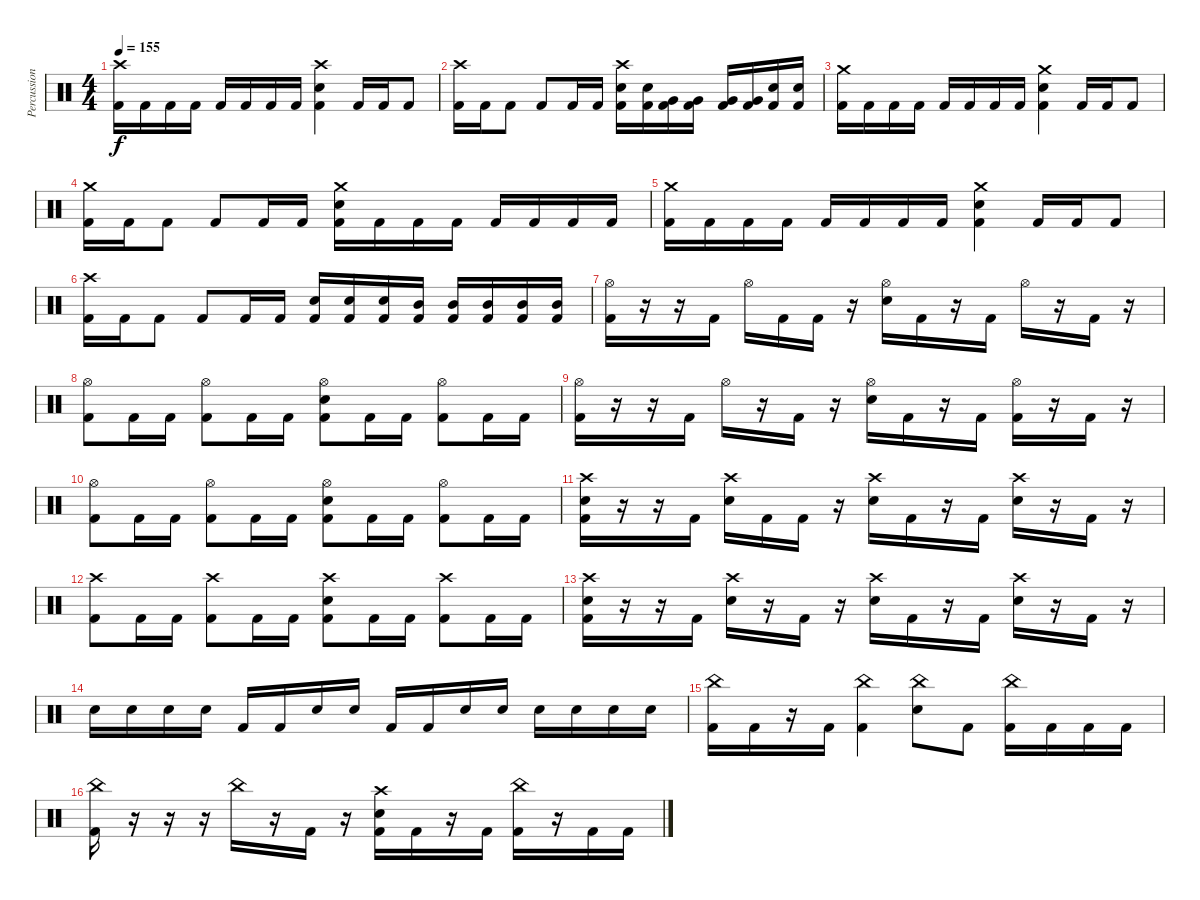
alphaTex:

\track ("Percussion" "Percussion") {instrument percussion}
\staff {score}
\articulation defaults
\ts (4 4)
\tempo 155
\clef neutral
\ks c
("Crash high (hit)" "Kick (hit) 2").16{dy f} "Kick (hit) 2".16 "Kick (hit) 2".16 "Kick (hit) 2".16 "Kick (hit) 2".16 "Kick (hit) 2".16 "Kick (hit) 2".16 "Kick (hit) 2".16 ("Crash high (hit)" "Electric Snare (hit)" "Kick (hit) 2").4 "Kick (hit) 2".16 "Kick (hit) 2".16 "Kick (hit) 2".8 |
("Crash high (hit)" "Kick (hit) 2").16 "Kick (hit) 2".16 "Kick (hit) 2".8 "Kick (hit) 2".8 "Kick (hit) 2".16 "Kick (hit) 2".16 ("Crash high (hit)" "Electric Snare (hit)" "Kick (hit) 2").16 ("Electric Snare (hit)" "Kick (hit) 2").16 ("Very Low Tom (hit)" "Kick (hit) 2").16 ("Very Low Tom (hit)" "Kick (hit) 2").16 ("Very Low Tom (hit)" "Kick (hit) 2").16 ("Very Low Tom (hit)" "Kick (hit) 2").16 ("Electric Snare (hit)" "Kick (hit) 2").16 ("Electric Snare (hit)" "Kick (hit) 2").16 |
("Crash medium (hit)" "Kick (hit) 2").16 "Kick (hit) 2".16 "Kick (hit) 2".16 "Kick (hit) 2".16 "Kick (hit) 2".16 "Kick (hit) 2".16 "Kick (hit) 2".16 "Kick (hit) 2".16 ("Crash medium (hit)" "Electric Snare (hit)" "Kick (hit) 2").4 "Kick (hit) 2".16 "Kick (hit) 2".16 "Kick (hit) 2".8 |
("Crash medium (hit)" "Kick (hit) 2").16 "Kick (hit) 2".16 "Kick (hit) 2".8 "Kick (hit) 2".8 "Kick (hit) 2".16 "Kick (hit) 2".16 ("Crash medium (hit)" "Electric Snare (hit)" "Kick (hit) 2").16 "Kick (hit) 2".16 "Kick (hit) 2".16 "Kick (hit) 2".16 "Kick (hit) 2".16 "Kick (hit) 2".16 "Kick (hit) 2".16 "Kick (hit) 2".16 |
("Crash medium (hit)" "Kick (hit) 2").16 "Kick (hit) 2".16 "Kick (hit) 2".16 "Kick (hit) 2".16 "Kick (hit) 2".16 "Kick (hit) 2".16 "Kick (hit) 2".16 "Kick (hit) 2".16 ("Crash medium (hit)" "Electric Snare (hit)" "Kick (hit) 2").4 "Kick (hit) 2".16 "Kick (hit) 2".16 "Kick (hit) 2".8 |
("Crash high (hit)" "Kick (hit) 2").16 "Kick (hit) 2".16 "Kick (hit) 2".8 "Kick (hit) 2".8 "Kick (hit) 2".16 "Kick (hit) 2".16 ("Electric Snare (hit)" "Kick (hit) 2").16 ("Electric Snare (hit)" "Kick (hit) 2").16 ("Electric Snare (hit)" "Kick (hit) 2").16 ("Mid Tom (hit)" "Kick (hit) 2").16 ("Mid Tom (hit)" "Kick (hit) 2").16 ("Mid Tom (hit)" "Kick (hit) 2").16 ("Mid Tom (hit)" "Kick (hit) 2").16 ("Mid Tom (hit)" "Kick (hit) 2").16 |
("Hi-Hat (open)" "Kick (hit) 2").16 r.16 r.16 "Kick (hit) 2".16 "Hi-Hat (open)".16 "Kick (hit) 2".16 "Kick (hit) 2".16 r.16 ("Hi-Hat (open)" "Electric Snare (hit)").16 "Kick (hit) 2".16 r.16 "Kick (hit) 2".16 "Hi-Hat (open)".16 r.16 "Kick (hit) 2".16 r.16 |
("Hi-Hat (open)" "Kick (hit) 2").8 "Kick (hit) 2".16 "Kick (hit) 2".16 ("Hi-Hat (open)" "Kick (hit) 2").8 "Kick (hit) 2".16 "Kick (hit) 2".16 ("Hi-Hat (open)" "Electric Snare (hit)" "Kick (hit) 2").8 "Kick (hit) 2".16 "Kick (hit) 2".16 ("Hi-Hat (open)" "Kick (hit) 2").8 "Kick (hit) 2".16 "Kick (hit) 2".16 |
("Hi-Hat (open)" "Kick (hit) 2").16 r.16 r.16 "Kick (hit) 2".16 "Hi-Hat (open)".16 r.16 "Kick (hit) 2".16 r.16 ("Hi-Hat (open)" "Electric Snare (hit)").16 "Kick (hit) 2".16 r.16 "Kick (hit) 2".16 ("Hi-Hat (open)" "Kick (hit) 2").16 r.16 "Kick (hit) 2".16 r.16 |
("Hi-Hat (open)" "Kick (hit) 2").8 "Kick (hit) 2".16 "Kick (hit) 2".16 ("Hi-Hat (open)" "Kick (hit) 2").8 "Kick (hit) 2".16 "Kick (hit) 2".16 ("Hi-Hat (open)" "Electric Snare (hit)" "Kick (hit) 2").8 "Kick (hit) 2".16 "Kick (hit) 2".16 ("Hi-Hat (open)" "Kick (hit) 2").8 "Kick (hit) 2".16 "Kick (hit) 2".16 |
("Crash high (hit)" "Electric Snare (hit)" "Kick (hit) 2").16 r.16 r.16 "Kick (hit) 2".16 ("Crash high (hit)" "Electric Snare (hit)").16 "Kick (hit) 2".16 "Kick (hit) 2".16 r.16 ("Crash high (hit)" "Electric Snare (hit)").16 "Kick (hit) 2".16 r.16 "Kick (hit) 2".16 ("Crash high (hit)" "Electric Snare (hit)").16 r.16 "Kick (hit) 2".16 r.16 |
("Crash high (hit)" "Kick (hit) 2").8 "Kick (hit) 2".16 "Kick (hit) 2".16 ("Crash high (hit)" "Kick (hit) 2").8 "Kick (hit) 2".16 "Kick (hit) 2".16 ("Crash high (hit)" "Electric Snare (hit)" "Kick (hit) 2").8 "Kick (hit) 2".16 "Kick (hit) 2".16 ("Crash high (hit)" "Kick (hit) 2").8 "Kick (hit) 2".16 "Kick (hit) 2".16 |
("Crash high (hit)" "Electric Snare (hit)" "Kick (hit) 2").16 r.16 r.16 "Kick (hit) 2".16 ("Crash high (hit)" "Electric Snare (hit)").16 r.16 "Kick (hit) 2".16 r.16 ("Crash high (hit)" "Electric Snare (hit)").16 "Kick (hit) 2".16 r.16 "Kick (hit) 2".16 ("Crash high (hit)" "Electric Snare (hit)").16 r.16 "Kick (hit) 2".16 r.16 |
"Electric Snare (hit)".16 "Electric Snare (hit)".16 "Electric Snare (hit)".16 "Electric Snare (hit)".16 "Kick (hit) 2".16 "Kick (hit) 2".16 "Electric Snare (hit)".16 "Electric Snare (hit)".16 "Kick (hit) 2".16 "Kick (hit) 2".16 "Electric Snare (hit)".16 "Electric Snare (hit)".16 "Electric Snare (hit)".16 "Electric Snare (hit)".16 "Electric Snare (hit)".16 "Electric Snare (hit)".16 |
("China (hit)" "Kick (hit) 2").16 "Kick (hit) 2".16 r.16 "Kick (hit) 2".16 ("China (hit)" "Kick (hit) 2").4 ("China (hit)" "Electric Snare (hit)").8 "Kick (hit) 2".8 ("China (hit)" "Kick (hit) 2").16 "Kick (hit) 2".16 "Kick (hit) 2".16 "Kick (hit) 2".16 |
("China (hit)" "Kick (hit) 2").16 r.16 r.16 r.16 "China (hit)".16 r.16 "Kick (hit) 2".16 r.16 ("Crash high (hit)" "Electric Snare (hit)" "Kick (hit) 2").16 "Kick (hit) 2".16 r.16 "Kick (hit) 2".16 ("China (hit)" "Kick (hit) 2").16 r.16 "Kick (hit) 2".16 "Kick (hit) 2".16
